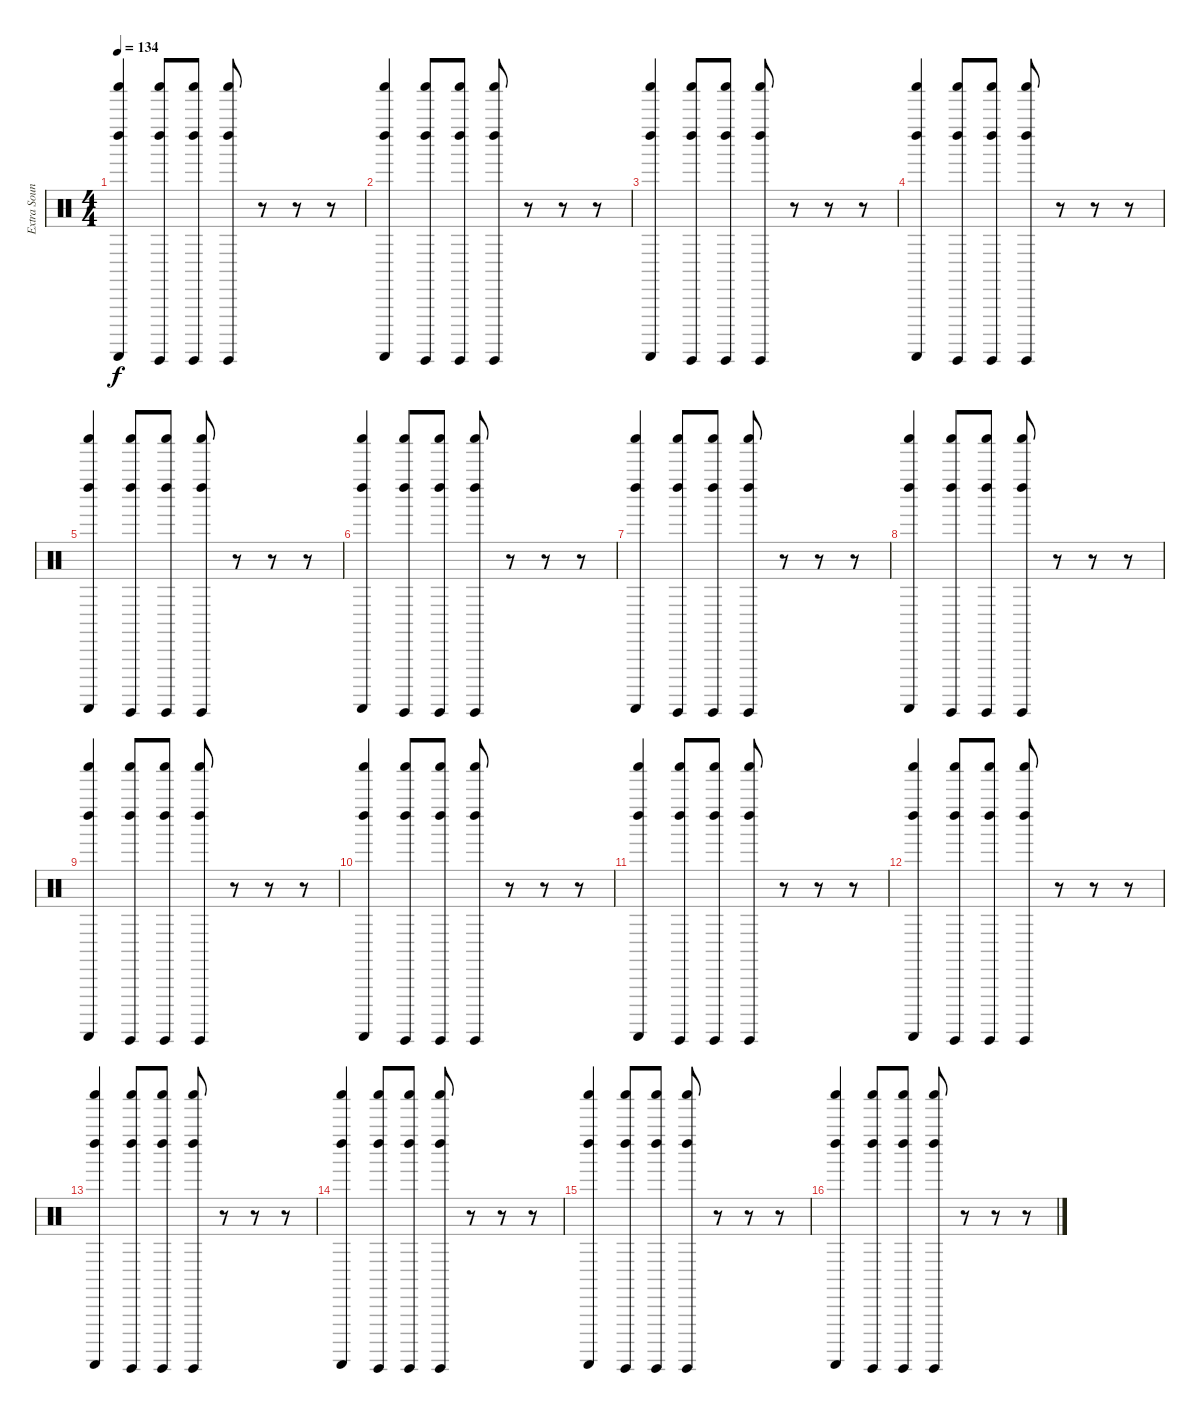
\track ("Extra Sounds" "Extra Soun") {instrument percussion}
\staff {score}
\articulation defaults
\ts (4 4)
\tempo 134
\clef neutral
\ks c
("Shaker (hit)" "Left Maraca (hit)" "Guiro (scrap-return)").4{dy f} ("Shaker (hit)" "Left Maraca (hit)" "Guiro (hit)").8 ("Shaker (hit)" "Left Maraca (hit)" "Guiro (hit)").8 ("Shaker (hit)" "Left Maraca (hit)" "Guiro (hit)").8 r.8 r.8 r.8 |
("Shaker (hit)" "Left Maraca (hit)" "Guiro (scrap-return)").4 ("Shaker (hit)" "Left Maraca (hit)" "Guiro (hit)").8 ("Shaker (hit)" "Left Maraca (hit)" "Guiro (hit)").8 ("Shaker (hit)" "Left Maraca (hit)" "Guiro (hit)").8 r.8 r.8 r.8 |
("Shaker (hit)" "Left Maraca (hit)" "Guiro (scrap-return)").4 ("Shaker (hit)" "Left Maraca (hit)" "Guiro (hit)").8 ("Shaker (hit)" "Left Maraca (hit)" "Guiro (hit)").8 ("Shaker (hit)" "Left Maraca (hit)" "Guiro (hit)").8 r.8 r.8 r.8 |
("Shaker (hit)" "Left Maraca (hit)" "Guiro (scrap-return)").4 ("Shaker (hit)" "Left Maraca (hit)" "Guiro (hit)").8 ("Shaker (hit)" "Left Maraca (hit)" "Guiro (hit)").8 ("Shaker (hit)" "Left Maraca (hit)" "Guiro (hit)").8 r.8 r.8 r.8 |
("Shaker (hit)" "Left Maraca (hit)" "Guiro (scrap-return)").4 ("Shaker (hit)" "Left Maraca (hit)" "Guiro (hit)").8 ("Shaker (hit)" "Left Maraca (hit)" "Guiro (hit)").8 ("Shaker (hit)" "Left Maraca (hit)" "Guiro (hit)").8 r.8 r.8 r.8 |
("Shaker (hit)" "Left Maraca (hit)" "Guiro (scrap-return)").4 ("Shaker (hit)" "Left Maraca (hit)" "Guiro (hit)").8 ("Shaker (hit)" "Left Maraca (hit)" "Guiro (hit)").8 ("Shaker (hit)" "Left Maraca (hit)" "Guiro (hit)").8 r.8 r.8 r.8 |
("Shaker (hit)" "Left Maraca (hit)" "Guiro (scrap-return)").4 ("Shaker (hit)" "Left Maraca (hit)" "Guiro (hit)").8 ("Shaker (hit)" "Left Maraca (hit)" "Guiro (hit)").8 ("Shaker (hit)" "Left Maraca (hit)" "Guiro (hit)").8 r.8 r.8 r.8 |
("Shaker (hit)" "Left Maraca (hit)" "Guiro (scrap-return)").4 ("Shaker (hit)" "Left Maraca (hit)" "Guiro (hit)").8 ("Shaker (hit)" "Left Maraca (hit)" "Guiro (hit)").8 ("Shaker (hit)" "Left Maraca (hit)" "Guiro (hit)").8 r.8 r.8 r.8 |
("Shaker (hit)" "Left Maraca (hit)" "Guiro (scrap-return)").4 ("Shaker (hit)" "Left Maraca (hit)" "Guiro (hit)").8 ("Shaker (hit)" "Left Maraca (hit)" "Guiro (hit)").8 ("Shaker (hit)" "Left Maraca (hit)" "Guiro (hit)").8 r.8 r.8 r.8 |
("Shaker (hit)" "Left Maraca (hit)" "Guiro (scrap-return)").4 ("Shaker (hit)" "Left Maraca (hit)" "Guiro (hit)").8 ("Shaker (hit)" "Left Maraca (hit)" "Guiro (hit)").8 ("Shaker (hit)" "Left Maraca (hit)" "Guiro (hit)").8 r.8 r.8 r.8 |
("Shaker (hit)" "Left Maraca (hit)" "Guiro (scrap-return)").4 ("Shaker (hit)" "Left Maraca (hit)" "Guiro (hit)").8 ("Shaker (hit)" "Left Maraca (hit)" "Guiro (hit)").8 ("Shaker (hit)" "Left Maraca (hit)" "Guiro (hit)").8 r.8 r.8 r.8 |
("Shaker (hit)" "Left Maraca (hit)" "Guiro (scrap-return)").4 ("Shaker (hit)" "Left Maraca (hit)" "Guiro (hit)").8 ("Shaker (hit)" "Left Maraca (hit)" "Guiro (hit)").8 ("Shaker (hit)" "Left Maraca (hit)" "Guiro (hit)").8 r.8 r.8 r.8 |
("Shaker (hit)" "Left Maraca (hit)" "Guiro (scrap-return)").4 ("Shaker (hit)" "Left Maraca (hit)" "Guiro (hit)").8 ("Shaker (hit)" "Left Maraca (hit)" "Guiro (hit)").8 ("Shaker (hit)" "Left Maraca (hit)" "Guiro (hit)").8 r.8 r.8 r.8 |
("Shaker (hit)" "Left Maraca (hit)" "Guiro (scrap-return)").4 ("Shaker (hit)" "Left Maraca (hit)" "Guiro (hit)").8 ("Shaker (hit)" "Left Maraca (hit)" "Guiro (hit)").8 ("Shaker (hit)" "Left Maraca (hit)" "Guiro (hit)").8 r.8 r.8 r.8 |
("Shaker (hit)" "Left Maraca (hit)" "Guiro (scrap-return)").4 ("Shaker (hit)" "Left Maraca (hit)" "Guiro (hit)").8 ("Shaker (hit)" "Left Maraca (hit)" "Guiro (hit)").8 ("Shaker (hit)" "Left Maraca (hit)" "Guiro (hit)").8 r.8 r.8 r.8 |
("Shaker (hit)" "Left Maraca (hit)" "Guiro (scrap-return)").4 ("Shaker (hit)" "Left Maraca (hit)" "Guiro (hit)").8 ("Shaker (hit)" "Left Maraca (hit)" "Guiro (hit)").8 ("Shaker (hit)" "Left Maraca (hit)" "Guiro (hit)").8 r.8 r.8 r.8
